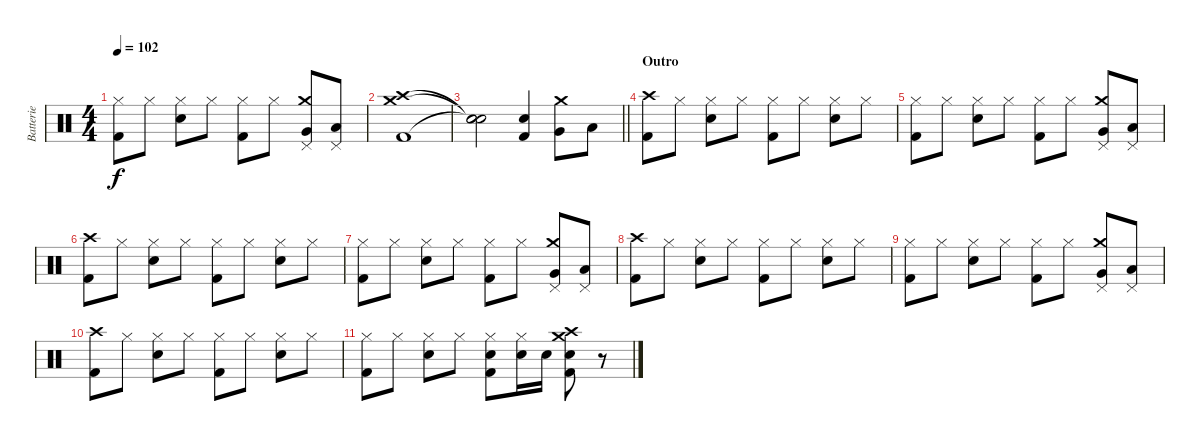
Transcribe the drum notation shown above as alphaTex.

\track ("Batterie" "Batterie") {instrument percussion}
\staff {score}
\articulation defaults
\ts (4 4)
\tempo 102
\clef neutral
\ks c
("Hi-Hat (closed)" "Kick (hit) 2").8{dy f} "Hi-Hat (closed)".8 ("Hi-Hat (closed)" "Snare (hit) 2").8 "Hi-Hat (closed)".8 ("Hi-Hat (closed)" "Kick (hit) 2").8 "Hi-Hat (closed)".8 ("Pedal Hi-Hat (hit)" "Crash medium (hit)" "Very Low Tom (hit)").8 ("Pedal Hi-Hat (hit)" "Low Floor Tom (hit)").8 |
("Crash medium (hit)" "Crash high (hit)" "Kick (hit) 2").1 |
\barLineRight lightlight
("Snare (hit)"{t} "Snare (hit)"{t} "Snare (hit)"{t}).2 ("Snare (hit) 2" "Kick (hit) 2").4 ("Crash medium (hit)" "Very Low Tom (hit)").8 "Low Floor Tom (hit)".8 |
\section ("" "Outro")
("Crash high (hit)" "Kick (hit) 2").8 "Hi-Hat (closed)".8 ("Hi-Hat (closed)" "Snare (hit) 2").8 "Hi-Hat (closed)".8 ("Hi-Hat (closed)" "Kick (hit) 2").8 "Hi-Hat (closed)".8 ("Hi-Hat (closed)" "Snare (hit) 2").8 "Hi-Hat (closed)".8 |
("Hi-Hat (closed)" "Kick (hit) 2").8 "Hi-Hat (closed)".8 ("Hi-Hat (closed)" "Snare (hit) 2").8 "Hi-Hat (closed)".8 ("Hi-Hat (closed)" "Kick (hit) 2").8 "Hi-Hat (closed)".8 ("Pedal Hi-Hat (hit)" "Crash medium (hit)" "Very Low Tom (hit)").8 ("Pedal Hi-Hat (hit)" "Low Floor Tom (hit)").8 |
("Crash high (hit)" "Kick (hit) 2").8 "Hi-Hat (closed)".8 ("Hi-Hat (closed)" "Snare (hit) 2").8 "Hi-Hat (closed)".8 ("Hi-Hat (closed)" "Kick (hit) 2").8 "Hi-Hat (closed)".8 ("Hi-Hat (closed)" "Snare (hit) 2").8 "Hi-Hat (closed)".8 |
("Hi-Hat (closed)" "Kick (hit) 2").8 "Hi-Hat (closed)".8 ("Hi-Hat (closed)" "Snare (hit) 2").8 "Hi-Hat (closed)".8 ("Hi-Hat (closed)" "Kick (hit) 2").8 "Hi-Hat (closed)".8 ("Pedal Hi-Hat (hit)" "Crash medium (hit)" "Very Low Tom (hit)").8 ("Pedal Hi-Hat (hit)" "Low Floor Tom (hit)").8 |
("Crash high (hit)" "Kick (hit) 2").8 "Hi-Hat (closed)".8 ("Hi-Hat (closed)" "Snare (hit) 2").8 "Hi-Hat (closed)".8 ("Hi-Hat (closed)" "Kick (hit) 2").8 "Hi-Hat (closed)".8 ("Hi-Hat (closed)" "Snare (hit) 2").8 "Hi-Hat (closed)".8 |
("Hi-Hat (closed)" "Kick (hit) 2").8 "Hi-Hat (closed)".8 ("Hi-Hat (closed)" "Snare (hit) 2").8 "Hi-Hat (closed)".8 ("Hi-Hat (closed)" "Kick (hit) 2").8 "Hi-Hat (closed)".8 ("Pedal Hi-Hat (hit)" "Crash medium (hit)" "Very Low Tom (hit)").8 ("Pedal Hi-Hat (hit)" "Low Floor Tom (hit)").8 |
("Crash high (hit)" "Kick (hit) 2").8 "Hi-Hat (closed)".8 ("Hi-Hat (closed)" "Snare (hit) 2").8 "Hi-Hat (closed)".8 ("Hi-Hat (closed)" "Kick (hit) 2").8 "Hi-Hat (closed)".8 ("Hi-Hat (closed)" "Snare (hit) 2").8 "Hi-Hat (closed)".8 |
("Hi-Hat (closed)" "Kick (hit) 2").8 "Hi-Hat (closed)".8 ("Hi-Hat (closed)" "Snare (hit) 2").8 "Hi-Hat (closed)".8 ("Hi-Hat (closed)" "Snare (hit) 2" "Kick (hit) 2").8 ("Hi-Hat (closed)" "Snare (hit) 2").16 "Snare (hit) 2".16 ("Crash high (hit)" "Crash medium (hit)" "Snare (hit) 2" "Kick (hit) 2").8 r.8
